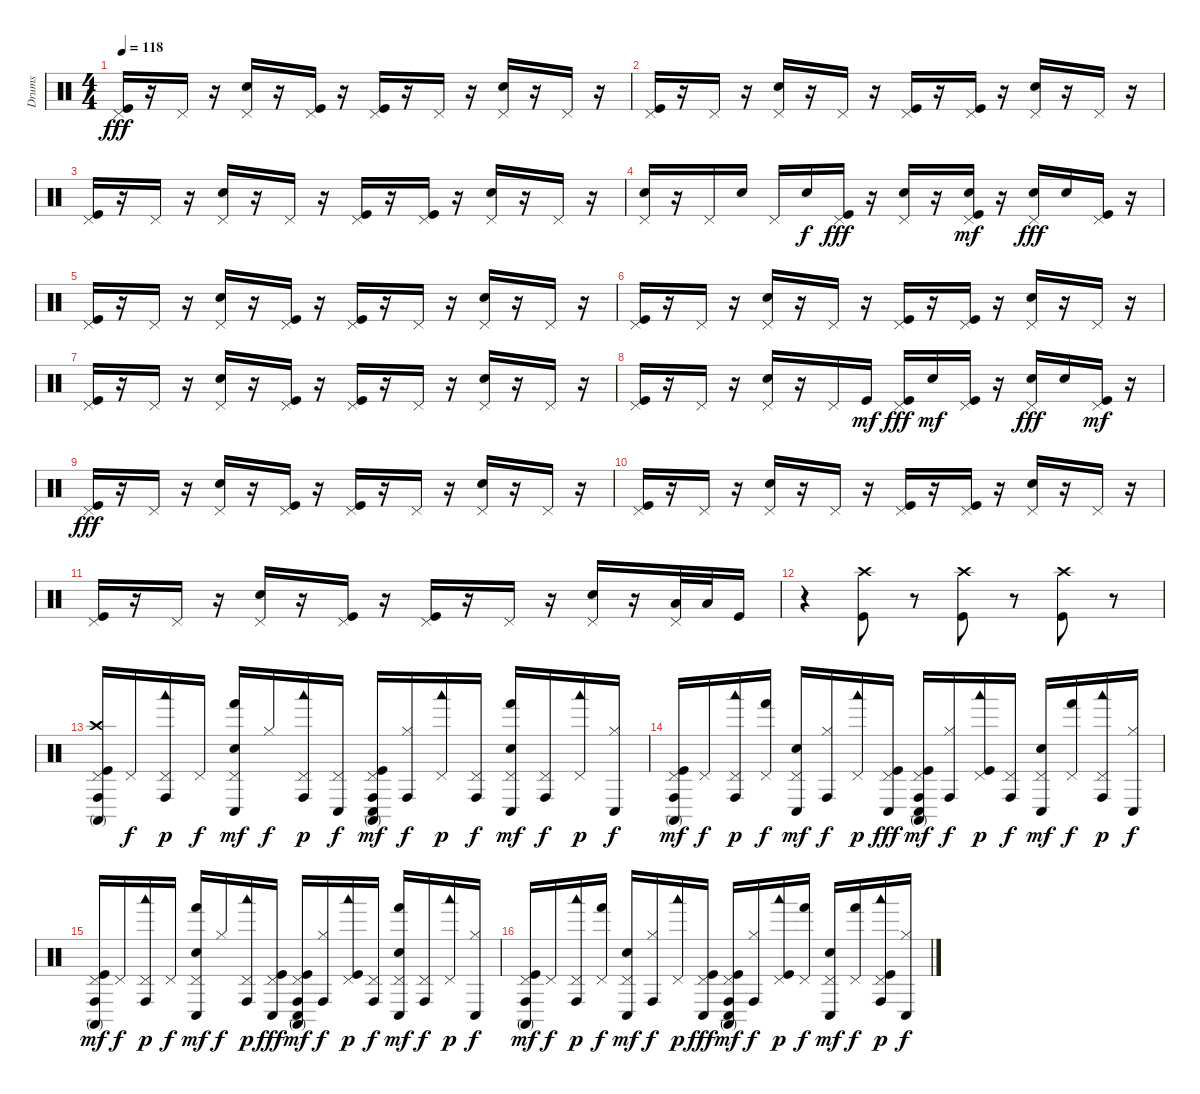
\track ("Drums" "Drums") {instrument percussion}
\staff {score}
\articulation defaults
\ts (4 4)
\tempo 118
\clef neutral
\ks c
("Kick (hit)" "Pedal Hi-Hat (hit)").16{dy fff} r.16 "Pedal Hi-Hat (hit)".16 r.16 ("Pedal Hi-Hat (hit)" "Electric Snare (hit)").16 r.16 ("Pedal Hi-Hat (hit)" "Kick (hit)").16 r.16 ("Pedal Hi-Hat (hit)" "Kick (hit)").16 r.16 "Pedal Hi-Hat (hit)".16 r.16 ("Pedal Hi-Hat (hit)" "Electric Snare (hit)").16 r.16 "Pedal Hi-Hat (hit)".16 r.16 |
("Pedal Hi-Hat (hit)" "Kick (hit)").16 r.16 "Pedal Hi-Hat (hit)".16 r.16 ("Pedal Hi-Hat (hit)" "Electric Snare (hit)").16 r.16 "Pedal Hi-Hat (hit)".16 r.16 ("Pedal Hi-Hat (hit)" "Kick (hit)").16 r.16 ("Pedal Hi-Hat (hit)" "Kick (hit)").16 r.16 ("Pedal Hi-Hat (hit)" "Electric Snare (hit)").16 r.16 "Pedal Hi-Hat (hit)".16 r.16 |
("Kick (hit)" "Pedal Hi-Hat (hit)").16 r.16 "Pedal Hi-Hat (hit)".16 r.16 ("Pedal Hi-Hat (hit)" "Electric Snare (hit)").16 r.16 "Pedal Hi-Hat (hit)".16 r.16 ("Pedal Hi-Hat (hit)" "Kick (hit)").16 r.16 ("Pedal Hi-Hat (hit)" "Kick (hit)").16 r.16 ("Pedal Hi-Hat (hit)" "Electric Snare (hit)").16 r.16 "Pedal Hi-Hat (hit)".16 r.16 |
("Electric Snare (hit)" "Pedal Hi-Hat (hit)").16 r.16 "Pedal Hi-Hat (hit)".16 "Electric Snare (hit)".16 "Pedal Hi-Hat (hit)".16 "Electric Snare (hit)".16{dy f} ("Pedal Hi-Hat (hit)" "Kick (hit)").16{dy fff} r.16 ("Pedal Hi-Hat (hit)" "Electric Snare (hit)").16 r.16 ("Pedal Hi-Hat (hit)" "Electric Snare (hit)" "Kick (hit)").16{dy mf} r.16 ("Pedal Hi-Hat (hit)" "Electric Snare (hit)").16{dy fff} "Electric Snare (hit)".16 ("Pedal Hi-Hat (hit)" "Kick (hit)").16 r.16 |
("Pedal Hi-Hat (hit)" "Kick (hit)").16 r.16 "Pedal Hi-Hat (hit)".16 r.16 ("Pedal Hi-Hat (hit)" "Electric Snare (hit)").16 r.16 ("Pedal Hi-Hat (hit)" "Kick (hit)").16 r.16 ("Pedal Hi-Hat (hit)" "Kick (hit)").16 r.16 "Pedal Hi-Hat (hit)".16 r.16 ("Pedal Hi-Hat (hit)" "Electric Snare (hit)").16 r.16 "Pedal Hi-Hat (hit)".16 r.16 |
("Pedal Hi-Hat (hit)" "Kick (hit)").16 r.16 "Pedal Hi-Hat (hit)".16 r.16 ("Pedal Hi-Hat (hit)" "Electric Snare (hit)").16 r.16 "Pedal Hi-Hat (hit)".16 r.16 ("Pedal Hi-Hat (hit)" "Kick (hit)").16 r.16 ("Pedal Hi-Hat (hit)" "Kick (hit)").16 r.16 ("Pedal Hi-Hat (hit)" "Electric Snare (hit)").16 r.16 "Pedal Hi-Hat (hit)".16 r.16 |
("Kick (hit)" "Pedal Hi-Hat (hit)").16 r.16 "Pedal Hi-Hat (hit)".16 r.16 ("Pedal Hi-Hat (hit)" "Electric Snare (hit)").16 r.16 ("Pedal Hi-Hat (hit)" "Kick (hit)").16 r.16 ("Pedal Hi-Hat (hit)" "Kick (hit)").16 r.16 "Pedal Hi-Hat (hit)".16 r.16 ("Pedal Hi-Hat (hit)" "Electric Snare (hit)").16 r.16 "Pedal Hi-Hat (hit)".16 r.16 |
("Pedal Hi-Hat (hit)" "Kick (hit)").16 r.16 "Pedal Hi-Hat (hit)".16 r.16 ("Pedal Hi-Hat (hit)" "Electric Snare (hit)").16 r.16 "Pedal Hi-Hat (hit)".16 "Kick (hit)".16{dy mf} ("Pedal Hi-Hat (hit)" "Kick (hit)").16{dy fff} "Electric Snare (hit)".16{dy mf} ("Pedal Hi-Hat (hit)" "Kick (hit)").16 r.16 ("Pedal Hi-Hat (hit)" "Electric Snare (hit)").16{dy fff} "Electric Snare (hit)".16 ("Pedal Hi-Hat (hit)" "Kick (hit)").16{dy mf} r.16 |
("Pedal Hi-Hat (hit)" "Kick (hit)").16{dy fff} r.16 "Pedal Hi-Hat (hit)".16 r.16 ("Pedal Hi-Hat (hit)" "Electric Snare (hit)").16 r.16 ("Pedal Hi-Hat (hit)" "Kick (hit)").16 r.16 ("Pedal Hi-Hat (hit)" "Kick (hit)").16 r.16 "Pedal Hi-Hat (hit)".16 r.16 ("Pedal Hi-Hat (hit)" "Electric Snare (hit)").16 r.16 "Pedal Hi-Hat (hit)".16 r.16 |
("Pedal Hi-Hat (hit)" "Kick (hit)").16 r.16 "Pedal Hi-Hat (hit)".16 r.16 ("Pedal Hi-Hat (hit)" "Electric Snare (hit)").16 r.16 "Pedal Hi-Hat (hit)".16 r.16 ("Pedal Hi-Hat (hit)" "Kick (hit)").16 r.16 ("Pedal Hi-Hat (hit)" "Kick (hit)").16 r.16 ("Pedal Hi-Hat (hit)" "Electric Snare (hit)").16 r.16 "Pedal Hi-Hat (hit)".16 r.16 |
("Kick (hit)" "Pedal Hi-Hat (hit)").16 r.16 "Pedal Hi-Hat (hit)".16 r.16 ("Pedal Hi-Hat (hit)" "Electric Snare (hit)").16 r.16 ("Pedal Hi-Hat (hit)" "Kick (hit)").16 r.16 ("Pedal Hi-Hat (hit)" "Kick (hit)").16 r.16 "Pedal Hi-Hat (hit)".16 r.16 ("Pedal Hi-Hat (hit)" "Electric Snare (hit)").16 r.16 ("Pedal Hi-Hat (hit)" "Low Floor Tom (hit)").32 "Low Floor Tom (hit)".32 "Kick (hit)".16 |
r.4 ("Kick (hit)" "Crash high (hit)").8 r.8 ("Kick (hit)" "Crash high (hit)").8 r.8 ("Kick (hit)" "Crash high (hit)").8 r.8 |
("Kick (hit)" "Pedal Hi-Hat (hit)" "Crash high (hit)" "Conga high (hit)" "Conga high (mute)").16 "Pedal Hi-Hat (hit)".16{dy f} ("Pedal Hi-Hat (hit)" "Woodblock low (hit)" "Conga high (hit)").16{dy p} "Pedal Hi-Hat (hit)".16{dy f} ("Electric Snare (hit)" "Pedal Hi-Hat (hit)" "Hand (hit)" "Conga low (hit)").16{dy mf} "Hi-Hat (closed)".16{dy f} ("Pedal Hi-Hat (hit)" "Conga high (hit)" "Woodblock low (hit)").16{dy p} ("Pedal Hi-Hat (hit)" "Conga low (hit)").16{dy f} ("Kick (hit)" "Pedal Hi-Hat (hit)" "Conga high (hit)" "Conga high (mute)" "Conga low (hit)").16{dy mf} ("Hi-Hat (closed)" "Conga high (hit)").16{dy f} ("Pedal Hi-Hat (hit)" "Woodblock low (hit)").16{dy p} ("Pedal Hi-Hat (hit)" "Conga high (hit)").16{dy f} ("Electric Snare (hit)" "Pedal Hi-Hat (hit)" "Hand (hit)" "Conga low (hit)").16{dy mf} ("Pedal Hi-Hat (hit)" "Conga high (hit)").16{dy f} ("Pedal Hi-Hat (hit)" "Woodblock low (hit)").16{dy p} ("Hi-Hat (closed)" "Conga low (hit)").16{dy f} |
("Kick (hit)" "Pedal Hi-Hat (hit)" "Conga high (hit)" "Conga high (mute)").16{dy mf} "Pedal Hi-Hat (hit)".16{dy f} ("Pedal Hi-Hat (hit)" "Woodblock low (hit)" "Conga high (hit)").16{dy p} ("Pedal Hi-Hat (hit)" "Hand (hit)").16{dy f} ("Electric Snare (hit)" "Pedal Hi-Hat (hit)" "Conga low (hit)").16{dy mf} ("Hi-Hat (closed)" "Conga high (hit)").16{dy f} ("Pedal Hi-Hat (hit)" "Woodblock low (hit)").16{dy p} ("Kick (hit)" "Pedal Hi-Hat (hit)" "Conga low (hit)").16{dy fff} ("Kick (hit)" "Pedal Hi-Hat (hit)" "Conga high (hit)" "Conga high (mute)" "Conga low (hit)").16{dy mf} ("Hi-Hat (closed)" "Conga high (hit)").16{dy f} ("Kick (hit)" "Pedal Hi-Hat (hit)" "Woodblock low (hit)").16{dy p} ("Pedal Hi-Hat (hit)" "Conga high (hit)").16{dy f} ("Electric Snare (hit)" "Pedal Hi-Hat (hit)" "Conga low (hit)").16{dy mf} ("Pedal Hi-Hat (hit)" "Hand (hit)").16{dy f} ("Pedal Hi-Hat (hit)" "Conga high (hit)" "Woodblock low (hit)").16{dy p} ("Hi-Hat (closed)" "Conga low (hit)").16{dy f} |
("Kick (hit)" "Pedal Hi-Hat (hit)" "Conga high (hit)" "Conga high (mute)").16{dy mf} "Pedal Hi-Hat (hit)".16{dy f} ("Pedal Hi-Hat (hit)" "Woodblock low (hit)" "Conga high (hit)").16{dy p} "Pedal Hi-Hat (hit)".16{dy f} ("Electric Snare (hit)" "Pedal Hi-Hat (hit)" "Hand (hit)" "Conga low (hit)").16{dy mf} "Hi-Hat (closed)".16{dy f} ("Pedal Hi-Hat (hit)" "Conga high (hit)" "Woodblock low (hit)").16{dy p} ("Kick (hit)" "Pedal Hi-Hat (hit)" "Conga low (hit)").16{dy fff} ("Kick (hit)" "Pedal Hi-Hat (hit)" "Conga high (hit)" "Conga high (mute)" "Conga low (hit)").16{dy mf} ("Hi-Hat (closed)" "Conga high (hit)").16{dy f} ("Kick (hit)" "Pedal Hi-Hat (hit)" "Woodblock low (hit)").16{dy p} ("Pedal Hi-Hat (hit)" "Conga high (hit)").16{dy f} ("Electric Snare (hit)" "Pedal Hi-Hat (hit)" "Hand (hit)" "Conga low (hit)").16{dy mf} ("Pedal Hi-Hat (hit)" "Conga high (hit)").16{dy f} ("Pedal Hi-Hat (hit)" "Woodblock low (hit)").16{dy p} ("Hi-Hat (closed)" "Conga low (hit)").16{dy f} |
("Kick (hit)" "Pedal Hi-Hat (hit)" "Conga high (hit)" "Conga high (mute)").16{dy mf} "Pedal Hi-Hat (hit)".16{dy f} ("Pedal Hi-Hat (hit)" "Woodblock low (hit)" "Conga high (hit)").16{dy p} ("Pedal Hi-Hat (hit)" "Hand (hit)").16{dy f} ("Electric Snare (hit)" "Pedal Hi-Hat (hit)" "Conga low (hit)").16{dy mf} ("Hi-Hat (closed)" "Conga high (hit)").16{dy f} ("Pedal Hi-Hat (hit)" "Woodblock low (hit)").16{dy p} ("Kick (hit)" "Pedal Hi-Hat (hit)" "Conga low (hit)").16{dy fff} ("Kick (hit)" "Pedal Hi-Hat (hit)" "Conga high (hit)" "Conga high (mute)" "Conga low (hit)").16{dy mf} ("Hi-Hat (closed)" "Conga high (hit)").16{dy f} ("Kick (hit)" "Pedal Hi-Hat (hit)" "Woodblock low (hit)").16{dy p} ("Pedal Hi-Hat (hit)" "Hand (hit)").16{dy f} ("Electric Snare (hit)" "Pedal Hi-Hat (hit)" "Conga low (hit)").16{dy mf} ("Pedal Hi-Hat (hit)" "Hand (hit)").16{dy f} ("Kick (hit)" "Pedal Hi-Hat (hit)" "Conga high (hit)" "Woodblock low (hit)").16{dy p} ("Hi-Hat (closed)" "Conga low (hit)").16{dy f}
